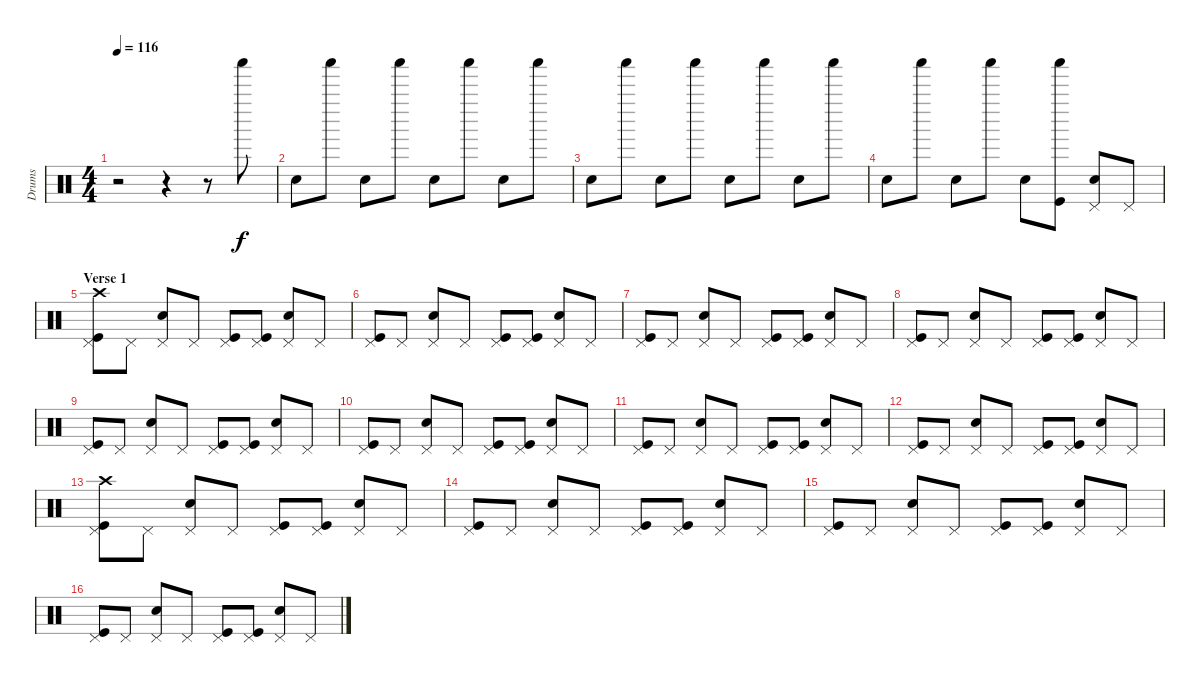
\track ("Drums" "Drums") {instrument percussion}
\staff {score}
\articulation defaults
\ts (4 4)
\tempo 116
\clef neutral
\ks c
r.2{dy f} r.4 r.8 "Shaker (hit)".8 |
"Snare (hit) 2".8 "Shaker (hit)".8 "Snare (hit) 2".8 "Shaker (hit)".8 "Snare (hit) 2".8 "Shaker (hit)".8 "Snare (hit) 2".8 "Shaker (hit)".8 |
"Snare (hit) 2".8 "Shaker (hit)".8 "Snare (hit) 2".8 "Shaker (hit)".8 "Snare (hit) 2".8 "Shaker (hit)".8 "Snare (hit) 2".8 "Shaker (hit)".8 |
"Snare (hit) 2".8 "Shaker (hit)".8 "Snare (hit) 2".8 "Shaker (hit)".8 "Snare (hit) 2".8 ("Shaker (hit)" "Kick (hit)").8 ("Pedal Hi-Hat (hit)" "Snare (hit) 2").8 "Pedal Hi-Hat (hit)".8 |
\section ("" "Verse 1")
("Pedal Hi-Hat (hit)" "Crash high (hit)" "Kick (hit)").8 "Pedal Hi-Hat (hit)".8 ("Pedal Hi-Hat (hit)" "Snare (hit) 2").8 "Pedal Hi-Hat (hit)".8 ("Pedal Hi-Hat (hit)" "Kick (hit)").8 ("Pedal Hi-Hat (hit)" "Kick (hit)").8 ("Pedal Hi-Hat (hit)" "Snare (hit) 2").8 "Pedal Hi-Hat (hit)".8 |
("Pedal Hi-Hat (hit)" "Kick (hit)").8 "Pedal Hi-Hat (hit)".8 ("Pedal Hi-Hat (hit)" "Snare (hit) 2").8 "Pedal Hi-Hat (hit)".8 ("Pedal Hi-Hat (hit)" "Kick (hit)").8 ("Pedal Hi-Hat (hit)" "Kick (hit)").8 ("Pedal Hi-Hat (hit)" "Snare (hit) 2").8 "Pedal Hi-Hat (hit)".8 |
("Pedal Hi-Hat (hit)" "Kick (hit)").8 "Pedal Hi-Hat (hit)".8 ("Pedal Hi-Hat (hit)" "Snare (hit) 2").8 "Pedal Hi-Hat (hit)".8 ("Pedal Hi-Hat (hit)" "Kick (hit)").8 ("Pedal Hi-Hat (hit)" "Kick (hit)").8 ("Pedal Hi-Hat (hit)" "Snare (hit) 2").8 "Pedal Hi-Hat (hit)".8 |
("Pedal Hi-Hat (hit)" "Kick (hit)").8 "Pedal Hi-Hat (hit)".8 ("Pedal Hi-Hat (hit)" "Snare (hit) 2").8 "Pedal Hi-Hat (hit)".8 ("Pedal Hi-Hat (hit)" "Kick (hit)").8 ("Pedal Hi-Hat (hit)" "Kick (hit)").8 ("Pedal Hi-Hat (hit)" "Snare (hit) 2").8 "Pedal Hi-Hat (hit)".8 |
("Pedal Hi-Hat (hit)" "Kick (hit)").8 "Pedal Hi-Hat (hit)".8 ("Pedal Hi-Hat (hit)" "Snare (hit) 2").8 "Pedal Hi-Hat (hit)".8 ("Pedal Hi-Hat (hit)" "Kick (hit)").8 ("Pedal Hi-Hat (hit)" "Kick (hit)").8 ("Pedal Hi-Hat (hit)" "Snare (hit) 2").8 "Pedal Hi-Hat (hit)".8 |
("Pedal Hi-Hat (hit)" "Kick (hit)").8 "Pedal Hi-Hat (hit)".8 ("Pedal Hi-Hat (hit)" "Snare (hit) 2").8 "Pedal Hi-Hat (hit)".8 ("Pedal Hi-Hat (hit)" "Kick (hit)").8 ("Pedal Hi-Hat (hit)" "Kick (hit)").8 ("Pedal Hi-Hat (hit)" "Snare (hit) 2").8 "Pedal Hi-Hat (hit)".8 |
("Pedal Hi-Hat (hit)" "Kick (hit)").8 "Pedal Hi-Hat (hit)".8 ("Pedal Hi-Hat (hit)" "Snare (hit) 2").8 "Pedal Hi-Hat (hit)".8 ("Pedal Hi-Hat (hit)" "Kick (hit)").8 ("Pedal Hi-Hat (hit)" "Kick (hit)").8 ("Pedal Hi-Hat (hit)" "Snare (hit) 2").8 "Pedal Hi-Hat (hit)".8 |
("Pedal Hi-Hat (hit)" "Kick (hit)").8 "Pedal Hi-Hat (hit)".8 ("Pedal Hi-Hat (hit)" "Snare (hit) 2").8 "Pedal Hi-Hat (hit)".8 ("Pedal Hi-Hat (hit)" "Kick (hit)").8 ("Pedal Hi-Hat (hit)" "Kick (hit)").8 ("Pedal Hi-Hat (hit)" "Snare (hit) 2").8 "Pedal Hi-Hat (hit)".8 |
("Pedal Hi-Hat (hit)" "Crash high (hit)" "Kick (hit)").8 "Pedal Hi-Hat (hit)".8 ("Pedal Hi-Hat (hit)" "Snare (hit) 2").8 "Pedal Hi-Hat (hit)".8 ("Pedal Hi-Hat (hit)" "Kick (hit)").8 ("Pedal Hi-Hat (hit)" "Kick (hit)").8 ("Pedal Hi-Hat (hit)" "Snare (hit) 2").8 "Pedal Hi-Hat (hit)".8 |
("Pedal Hi-Hat (hit)" "Kick (hit)").8 "Pedal Hi-Hat (hit)".8 ("Pedal Hi-Hat (hit)" "Snare (hit) 2").8 "Pedal Hi-Hat (hit)".8 ("Pedal Hi-Hat (hit)" "Kick (hit)").8 ("Pedal Hi-Hat (hit)" "Kick (hit)").8 ("Pedal Hi-Hat (hit)" "Snare (hit) 2").8 "Pedal Hi-Hat (hit)".8 |
("Pedal Hi-Hat (hit)" "Kick (hit)").8 "Pedal Hi-Hat (hit)".8 ("Pedal Hi-Hat (hit)" "Snare (hit) 2").8 "Pedal Hi-Hat (hit)".8 ("Pedal Hi-Hat (hit)" "Kick (hit)").8 ("Pedal Hi-Hat (hit)" "Kick (hit)").8 ("Pedal Hi-Hat (hit)" "Snare (hit) 2").8 "Pedal Hi-Hat (hit)".8 |
("Pedal Hi-Hat (hit)" "Kick (hit)").8 "Pedal Hi-Hat (hit)".8 ("Pedal Hi-Hat (hit)" "Snare (hit) 2").8 "Pedal Hi-Hat (hit)".8 ("Pedal Hi-Hat (hit)" "Kick (hit)").8 ("Pedal Hi-Hat (hit)" "Kick (hit)").8 ("Pedal Hi-Hat (hit)" "Snare (hit) 2").8 "Pedal Hi-Hat (hit)".8
